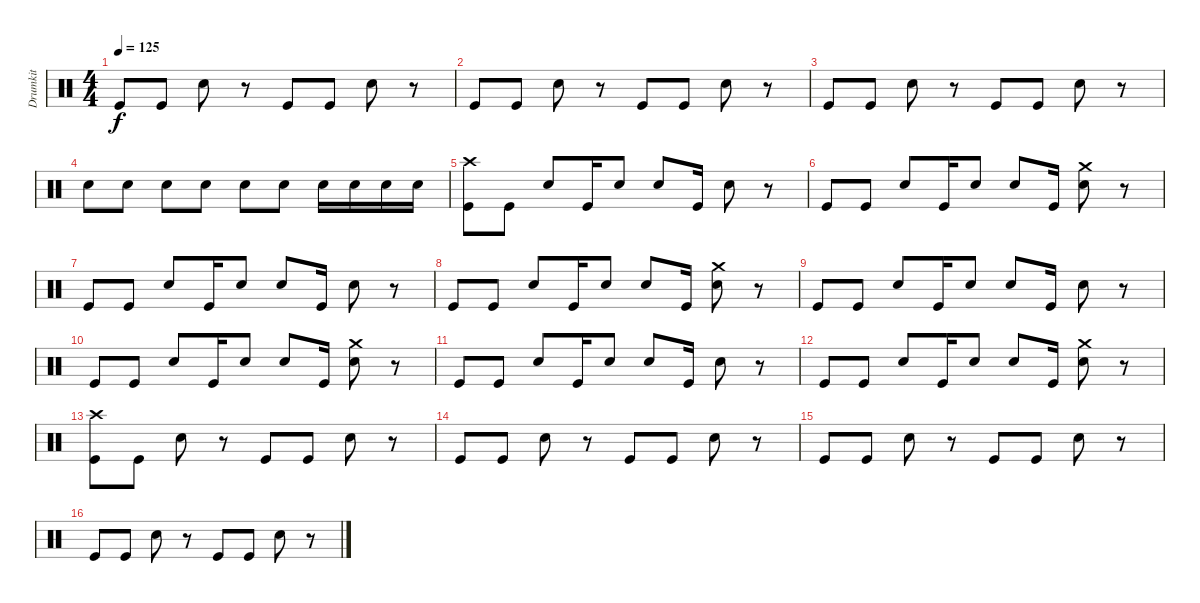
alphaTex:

\track ("Drumkit" "Drumkit") {instrument percussion}
\staff {score}
\articulation defaults
\ts (4 4)
\tempo 125
\clef neutral
\ks c "Kick (hit)".8{dy f} "Kick (hit)".8 "Snare (hit) 2".8
r.8 "Kick (hit)".8 "Kick (hit)".8 "Snare (hit) 2".8 r.8 |
"Kick (hit)".8 "Kick (hit)".8 "Snare (hit) 2".8 r.8 "Kick (hit)".8 "Kick (hit)".8 "Snare (hit) 2".8 r.8 |
"Kick (hit)".8 "Kick (hit)".8 "Snare (hit) 2".8 r.8 "Kick (hit)".8 "Kick (hit)".8 "Snare (hit) 2".8 r.8 |
"Snare (hit) 2".8 "Snare (hit) 2".8 "Snare (hit) 2".8 "Snare (hit) 2".8 "Snare (hit) 2".8 "Snare (hit) 2".8 "Snare (hit) 2".16 "Snare (hit) 2".16 "Snare (hit) 2".16 "Snare (hit) 2".16 |
("Crash high (hit)" "Kick (hit)").8 "Kick (hit)".8 "Snare (hit) 2".8 "Kick (hit)".16 "Snare (hit) 2".8 "Snare (hit) 2".8 "Kick (hit)".16 "Snare (hit) 2".8 r.8 |
"Kick (hit)".8 "Kick (hit)".8 "Snare (hit) 2".8 "Kick (hit)".16 "Snare (hit) 2".8 "Snare (hit) 2".8 "Kick (hit)".16 ("Crash medium (hit)" "Snare (hit) 2").8 r.8 |
"Kick (hit)".8 "Kick (hit)".8 "Snare (hit) 2".8 "Kick (hit)".16 "Snare (hit) 2".8 "Snare (hit) 2".8 "Kick (hit)".16 "Snare (hit) 2".8 r.8 |
"Kick (hit)".8 "Kick (hit)".8 "Snare (hit) 2".8 "Kick (hit)".16 "Snare (hit) 2".8 "Snare (hit) 2".8 "Kick (hit)".16 ("Crash medium (hit)" "Snare (hit) 2").8 r.8 |
"Kick (hit)".8 "Kick (hit)".8 "Snare (hit) 2".8 "Kick (hit)".16 "Snare (hit) 2".8 "Snare (hit) 2".8 "Kick (hit)".16 "Snare (hit) 2".8 r.8 |
"Kick (hit)".8 "Kick (hit)".8 "Snare (hit) 2".8 "Kick (hit)".16 "Snare (hit) 2".8 "Snare (hit) 2".8 "Kick (hit)".16 ("Crash medium (hit)" "Snare (hit) 2").8 r.8 |
"Kick (hit)".8 "Kick (hit)".8 "Snare (hit) 2".8 "Kick (hit)".16 "Snare (hit) 2".8 "Snare (hit) 2".8 "Kick (hit)".16 "Snare (hit) 2".8 r.8 |
"Kick (hit)".8 "Kick (hit)".8 "Snare (hit) 2".8 "Kick (hit)".16 "Snare (hit) 2".8 "Snare (hit) 2".8 "Kick (hit)".16 ("Crash medium (hit)" "Snare (hit) 2").8 r.8 |
("Crash high (hit)" "Kick (hit)").8 "Kick (hit)".8 "Snare (hit) 2".8 r.8 "Kick (hit)".8 "Kick (hit)".8 "Snare (hit) 2".8 r.8 |
"Kick (hit)".8 "Kick (hit)".8 "Snare (hit) 2".8 r.8 "Kick (hit)".8 "Kick (hit)".8 "Snare (hit) 2".8 r.8 |
"Kick (hit)".8 "Kick (hit)".8 "Snare (hit) 2".8 r.8 "Kick (hit)".8 "Kick (hit)".8 "Snare (hit) 2".8 r.8 |
"Kick (hit)".8 "Kick (hit)".8 "Snare (hit) 2".8 r.8 "Kick (hit)".8 "Kick (hit)".8 "Snare (hit) 2".8 r.8
